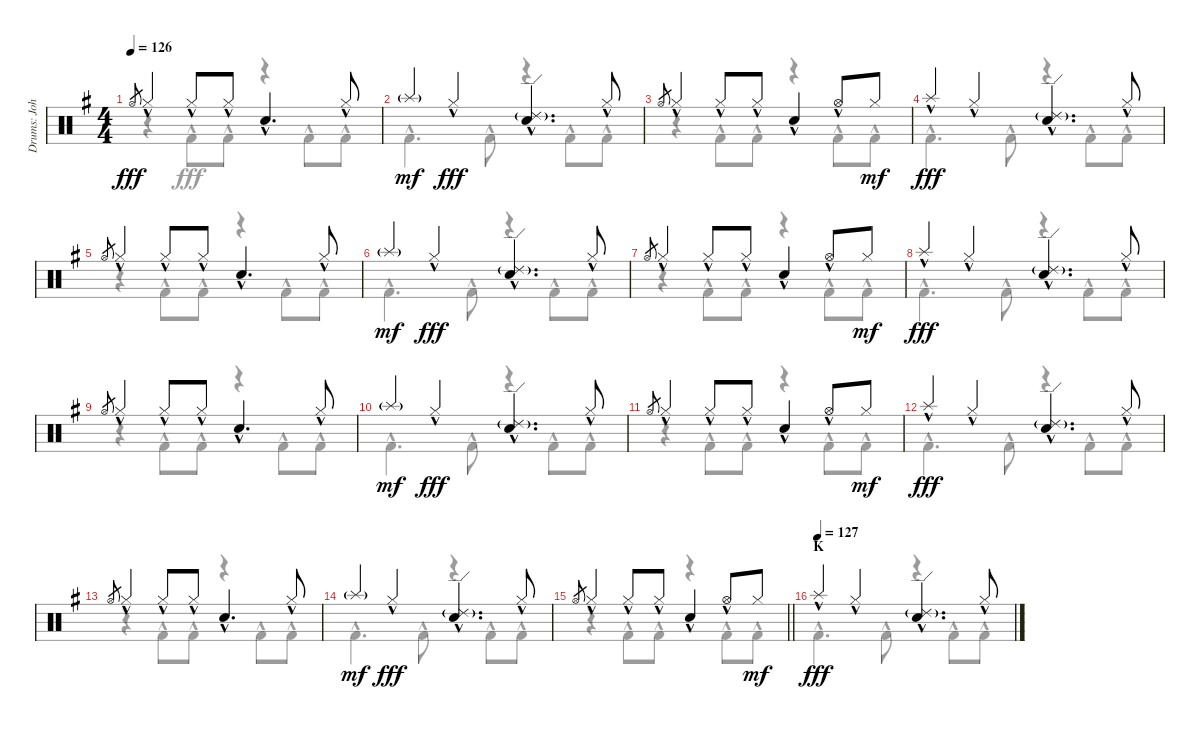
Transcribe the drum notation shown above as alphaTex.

\track ("Drums: John" "Drums: Joh") {instrument percussion}
\staff {score}
\articulation defaults
\voice
\ts (4 4)
\tempo 126
\clef neutral
\ks g "Hi-Hat (open)".8{gr dy fff} "Hi-Hat (closed)"{hac}.4 "Hi-Hat (closed)"{hac}.8 "Hi-Hat (closed)"{hac}.8 "Electric Snare (hit)"{hac}.4{d} "Hi-Hat (closed)"{hac}.8
|
"Splash (hit)"{g}.4{dy mf} "Hi-Hat (closed)"{hac}.4{dy fff} ("Ride (edge) 2"{g} "Electric Snare (hit)"{hac}).4{d} "Hi-Hat (closed)"{hac}.8 |
"Hi-Hat (open)".8{gr} "Hi-Hat (closed)"{hac}.4 "Hi-Hat (closed)"{hac}.8 "Hi-Hat (closed)"{hac}.8 "Electric Snare (hit)"{hac}.4 "Hi-Hat (open)"{hac}.8 "Hi-Hat (closed)".8{dy mf} |
"Splash (hit)"{hac}.4{dy fff} "Hi-Hat (closed)"{hac}.4 ("Ride (edge) 2"{g} "Electric Snare (hit)"{hac}).4{d} "Hi-Hat (closed)"{hac}.8 |
"Hi-Hat (open)".8{gr} "Hi-Hat (closed)"{hac}.4 "Hi-Hat (closed)"{hac}.8 "Hi-Hat (closed)"{hac}.8 "Electric Snare (hit)"{hac}.4{d} "Hi-Hat (closed)"{hac}.8 |
"Splash (hit)"{g}.4{dy mf} "Hi-Hat (closed)"{hac}.4{dy fff} ("Ride (edge) 2"{g} "Electric Snare (hit)"{hac}).4{d} "Hi-Hat (closed)"{hac}.8 |
"Hi-Hat (open)".8{gr} "Hi-Hat (closed)"{hac}.4 "Hi-Hat (closed)"{hac}.8 "Hi-Hat (closed)"{hac}.8 "Electric Snare (hit)"{hac}.4 "Hi-Hat (open)"{hac}.8 "Hi-Hat (closed)".8{dy mf} |
"Splash (hit)"{hac}.4{dy fff} "Hi-Hat (closed)"{hac}.4 ("Ride (edge) 2"{g} "Electric Snare (hit)"{hac}).4{d} "Hi-Hat (closed)"{hac}.8 |
"Hi-Hat (open)".8{gr} "Hi-Hat (closed)"{hac}.4 "Hi-Hat (closed)"{hac}.8 "Hi-Hat (closed)"{hac}.8 "Electric Snare (hit)"{hac}.4{d} "Hi-Hat (closed)"{hac}.8 |
"Splash (hit)"{g}.4{dy mf} "Hi-Hat (closed)"{hac}.4{dy fff} ("Ride (edge) 2"{g} "Electric Snare (hit)"{hac}).4{d} "Hi-Hat (closed)"{hac}.8 |
"Hi-Hat (open)".8{gr} "Hi-Hat (closed)"{hac}.4 "Hi-Hat (closed)"{hac}.8 "Hi-Hat (closed)"{hac}.8 "Electric Snare (hit)"{hac}.4 "Hi-Hat (open)"{hac}.8 "Hi-Hat (closed)".8{dy mf} |
"Splash (hit)"{hac}.4{dy fff} "Hi-Hat (closed)"{hac}.4 ("Ride (edge) 2"{g} "Electric Snare (hit)"{hac}).4{d} "Hi-Hat (closed)"{hac}.8 |
"Hi-Hat (open)".8{gr} "Hi-Hat (closed)"{hac}.4 "Hi-Hat (closed)"{hac}.8 "Hi-Hat (closed)"{hac}.8 "Electric Snare (hit)"{hac}.4{d} "Hi-Hat (closed)"{hac}.8 |
"Splash (hit)"{g}.4{dy mf} "Hi-Hat (closed)"{hac}.4{dy fff} ("Ride (edge) 2"{g} "Electric Snare (hit)"{hac}).4{d} "Hi-Hat (closed)"{hac}.8 |
\barLineRight lightlight "Hi-Hat (open)".8{gr} "Hi-Hat (closed)"{hac}.4 "Hi-Hat (closed)"{hac}.8 "Hi-Hat (closed)"{hac}.8 "Electric Snare (hit)"{hac}.4 "Hi-Hat (open)"{hac}.8 "Hi-Hat (closed)".8{dy mf}
|
\section ("" "K")
\tempo (127)
"Splash (hit)"{hac}.4{dy fff} "Hi-Hat (closed)"{hac}.4 ("Ride (edge) 2"{g} "Electric Snare (hit)"{hac}).4{d} "Hi-Hat (closed)"{hac}.8
\voice
\clef neutral
\ottava regular
\simile none
\ks g
r.4{dy fff} "Kick (hit) 2"{hac}.8 "Kick (hit) 2"{hac}.8 r.4 "Kick (hit) 2"{hac}.8 "Kick (hit) 2"{hac}.8 |
"Kick (hit) 2"{hac}.4{d} "Kick (hit) 2"{hac}.8 r.4 "Kick (hit) 2"{hac}.8 "Kick (hit) 2"{hac}.8 |
r.4 "Kick (hit) 2"{hac}.8 "Kick (hit) 2"{hac}.8 r.4 "Kick (hit) 2"{hac}.8 "Kick (hit) 2"{hac}.8 |
"Kick (hit) 2"{hac}.4{d} "Kick (hit) 2"{hac}.8 r.4 "Kick (hit) 2"{hac}.8 "Kick (hit) 2"{hac}.8 |
r.4 "Kick (hit) 2"{hac}.8 "Kick (hit) 2"{hac}.8 r.4 "Kick (hit) 2"{hac}.8 "Kick (hit) 2"{hac}.8 |
"Kick (hit) 2"{hac}.4{d} "Kick (hit) 2"{hac}.8 r.4 "Kick (hit) 2"{hac}.8 "Kick (hit) 2"{hac}.8 |
r.4 "Kick (hit) 2"{hac}.8 "Kick (hit) 2"{hac}.8 r.4 "Kick (hit) 2"{hac}.8 "Kick (hit) 2"{hac}.8 |
"Kick (hit) 2"{hac}.4{d} "Kick (hit) 2"{hac}.8 r.4 "Kick (hit) 2"{hac}.8 "Kick (hit) 2"{hac}.8 |
r.4 "Kick (hit) 2"{hac}.8 "Kick (hit) 2"{hac}.8 r.4 "Kick (hit) 2"{hac}.8 "Kick (hit) 2"{hac}.8 |
"Kick (hit) 2"{hac}.4{d} "Kick (hit) 2"{hac}.8 r.4 "Kick (hit) 2"{hac}.8 "Kick (hit) 2"{hac}.8 |
r.4 "Kick (hit) 2"{hac}.8 "Kick (hit) 2"{hac}.8 r.4 "Kick (hit) 2"{hac}.8 "Kick (hit) 2"{hac}.8 |
"Kick (hit) 2"{hac}.4{d} "Kick (hit) 2"{hac}.8 r.4 "Kick (hit) 2"{hac}.8 "Kick (hit) 2"{hac}.8 |
r.4 "Kick (hit) 2"{hac}.8 "Kick (hit) 2"{hac}.8 r.4 "Kick (hit) 2"{hac}.8 "Kick (hit) 2"{hac}.8 |
"Kick (hit) 2"{hac}.4{d} "Kick (hit) 2"{hac}.8 r.4 "Kick (hit) 2"{hac}.8 "Kick (hit) 2"{hac}.8 |
\barLineRight lightlight
r.4 "Kick (hit) 2"{hac}.8 "Kick (hit) 2"{hac}.8 r.4 "Kick (hit) 2"{hac}.8 "Kick (hit) 2"{hac}.8 |
"Kick (hit) 2"{hac}.4{d} "Kick (hit) 2"{hac}.8 r.4 "Kick (hit) 2"{hac}.8 "Kick (hit) 2"{hac}.8
